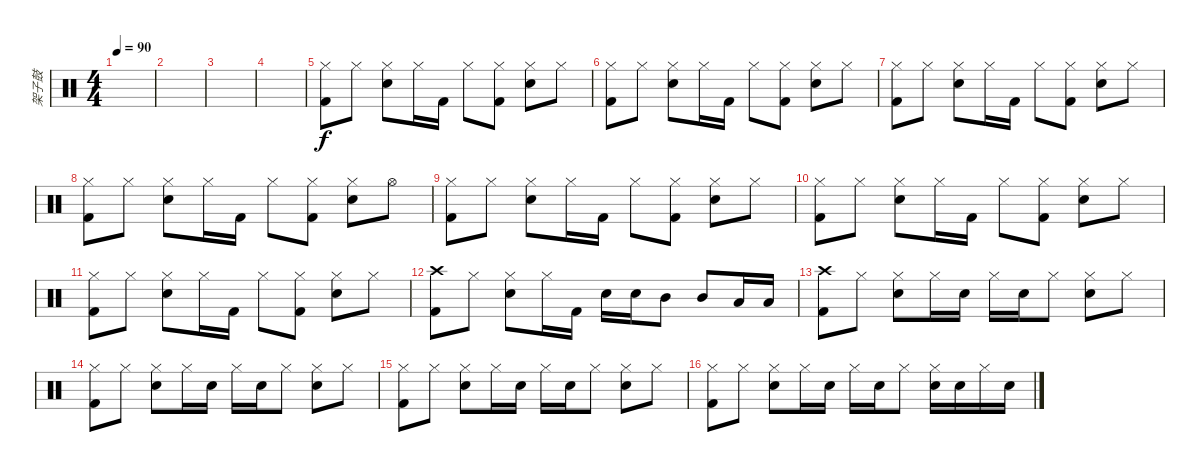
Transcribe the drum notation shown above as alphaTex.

\track ("架子鼓" "架子鼓") {instrument percussion}
\staff {score}
\articulation defaults
\ts (4 4)
\tempo 90
\clef neutral
\ks c
|
|
|
|
("Hi-Hat (closed)" "Kick (hit) 2").8{dy f} "Hi-Hat (closed)".8 ("Hi-Hat (closed)" "Snare (hit) 2").8 "Hi-Hat (closed)".16 "Kick (hit) 2".16 "Hi-Hat (closed)".8 ("Hi-Hat (closed)" "Kick (hit) 2").8 ("Hi-Hat (closed)" "Snare (hit) 2").8 "Hi-Hat (closed)".8 |
("Hi-Hat (closed)" "Kick (hit) 2").8 "Hi-Hat (closed)".8 ("Hi-Hat (closed)" "Snare (hit) 2").8 "Hi-Hat (closed)".16 "Kick (hit) 2".16 "Hi-Hat (closed)".8 ("Hi-Hat (closed)" "Kick (hit) 2").8 ("Hi-Hat (closed)" "Snare (hit) 2").8 "Hi-Hat (closed)".8 |
("Hi-Hat (closed)" "Kick (hit) 2").8 "Hi-Hat (closed)".8 ("Hi-Hat (closed)" "Snare (hit) 2").8 "Hi-Hat (closed)".16 "Kick (hit) 2".16 "Hi-Hat (closed)".8 ("Hi-Hat (closed)" "Kick (hit) 2").8 ("Hi-Hat (closed)" "Snare (hit) 2").8 "Hi-Hat (closed)".8 |
("Hi-Hat (closed)" "Kick (hit) 2").8 "Hi-Hat (closed)".8 ("Hi-Hat (closed)" "Snare (hit) 2").8 "Hi-Hat (closed)".16 "Kick (hit) 2".16 "Hi-Hat (closed)".8 ("Hi-Hat (closed)" "Kick (hit) 2").8 ("Hi-Hat (closed)" "Snare (hit) 2").8 "Hi-Hat (open)".8 |
("Hi-Hat (closed)" "Kick (hit) 2").8 "Hi-Hat (closed)".8 ("Hi-Hat (closed)" "Snare (hit) 2").8 "Hi-Hat (closed)".16 "Kick (hit) 2".16 "Hi-Hat (closed)".8 ("Hi-Hat (closed)" "Kick (hit) 2").8 ("Hi-Hat (closed)" "Snare (hit) 2").8 "Hi-Hat (closed)".8 |
("Hi-Hat (closed)" "Kick (hit) 2").8 "Hi-Hat (closed)".8 ("Hi-Hat (closed)" "Snare (hit) 2").8 "Hi-Hat (closed)".16 "Kick (hit) 2".16 "Hi-Hat (closed)".8 ("Hi-Hat (closed)" "Kick (hit) 2").8 ("Hi-Hat (closed)" "Snare (hit) 2").8 "Hi-Hat (closed)".8 |
("Hi-Hat (closed)" "Kick (hit) 2").8 "Hi-Hat (closed)".8 ("Hi-Hat (closed)" "Snare (hit) 2").8 "Hi-Hat (closed)".16 "Kick (hit) 2".16 "Hi-Hat (closed)".8 ("Hi-Hat (closed)" "Kick (hit) 2").8 ("Hi-Hat (closed)" "Snare (hit) 2").8 "Hi-Hat (closed)".8 |
("Crash high (hit)" "Kick (hit) 2").8 "Hi-Hat (closed)".8 ("Hi-Hat (closed)" "Snare (hit) 2").8 "Hi-Hat (closed)".16 "Kick (hit) 2".16 "Snare (hit) 2".16 "Snare (hit) 2".16 "Mid Tom (hit)".8 "Mid Tom (hit)".8 "Low Tom (hit)".16 "Low Tom (hit)".16 |
("Crash high (hit)" "Kick (hit) 2").8 "Hi-Hat (closed)".8 ("Hi-Hat (closed)" "Snare (hit) 2").8 "Hi-Hat (closed)".16 "Snare (hit) 2".16 "Hi-Hat (closed)".16 "Snare (hit) 2".16 "Hi-Hat (closed)".8 ("Hi-Hat (closed)" "Snare (hit) 2").8 "Hi-Hat (closed)".8 |
("Hi-Hat (closed)" "Kick (hit) 2").8 "Hi-Hat (closed)".8 ("Hi-Hat (closed)" "Snare (hit) 2").8 "Hi-Hat (closed)".16 "Snare (hit) 2".16 "Hi-Hat (closed)".16 "Snare (hit) 2".16 "Hi-Hat (closed)".8 ("Hi-Hat (closed)" "Snare (hit) 2").8 "Hi-Hat (closed)".8 |
("Hi-Hat (closed)" "Kick (hit) 2").8 "Hi-Hat (closed)".8 ("Hi-Hat (closed)" "Snare (hit) 2").8 "Hi-Hat (closed)".16 "Snare (hit) 2".16 "Hi-Hat (closed)".16 "Snare (hit) 2".16 "Hi-Hat (closed)".8 ("Hi-Hat (closed)" "Snare (hit) 2").8 "Hi-Hat (closed)".8 |
("Hi-Hat (closed)" "Kick (hit) 2").8 "Hi-Hat (closed)".8 ("Hi-Hat (closed)" "Snare (hit) 2").8 "Hi-Hat (closed)".16 "Snare (hit) 2".16 "Hi-Hat (closed)".16 "Snare (hit) 2".16 "Hi-Hat (closed)".8 ("Hi-Hat (closed)" "Snare (hit) 2").16 "Snare (hit) 2".16 "Hi-Hat (closed)".16 "Snare (hit) 2".16
